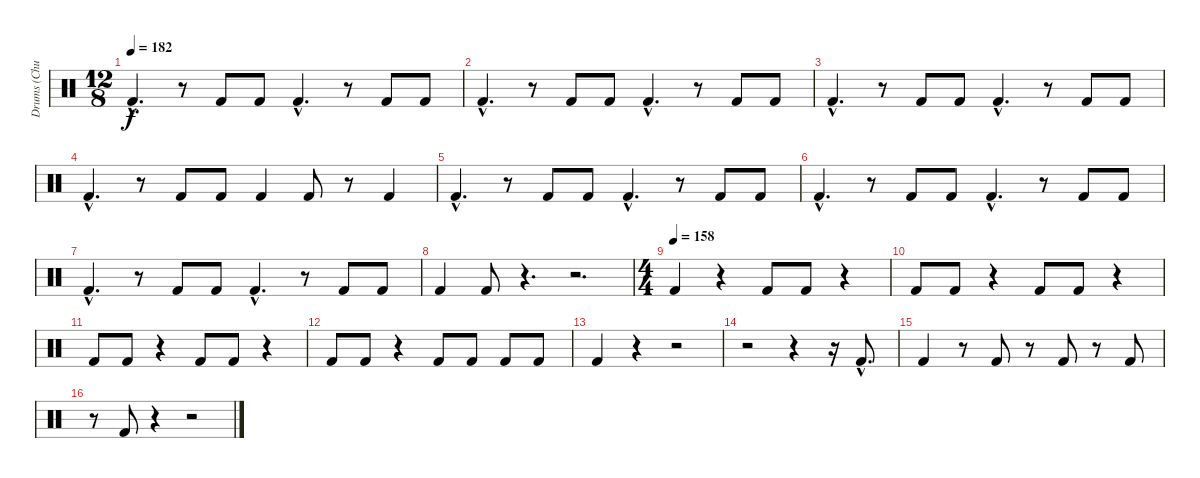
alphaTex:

\track ("Drums (Chuck Behler)" "Drums (Chu") {instrument percussion}
\staff {score}
\articulation defaults
\ts (12 8)
\tempo 182
\clef neutral
\ks c "Kick (hit) 2"{hac}.4{d dy f}
r.8 "Kick (hit) 2".8 "Kick (hit) 2".8 "Kick (hit) 2"{hac}.4{d} r.8 "Kick (hit) 2".8 "Kick (hit) 2".8 |
"Kick (hit) 2"{hac}.4{d} r.8 "Kick (hit) 2".8 "Kick (hit) 2".8 "Kick (hit) 2"{hac}.4{d} r.8 "Kick (hit) 2".8 "Kick (hit) 2".8 |
"Kick (hit) 2"{hac}.4{d} r.8 "Kick (hit) 2".8 "Kick (hit) 2".8 "Kick (hit) 2"{hac}.4{d} r.8 "Kick (hit) 2".8 "Kick (hit) 2".8 |
"Kick (hit) 2"{hac}.4{d} r.8 "Kick (hit) 2".8 "Kick (hit) 2".8 "Kick (hit) 2".4 "Kick (hit) 2".8 r.8 "Kick (hit) 2".4 |
"Kick (hit) 2"{hac}.4{d} r.8 "Kick (hit) 2".8 "Kick (hit) 2".8 "Kick (hit) 2"{hac}.4{d} r.8 "Kick (hit) 2".8 "Kick (hit) 2".8 |
"Kick (hit) 2"{hac}.4{d} r.8 "Kick (hit) 2".8 "Kick (hit) 2".8 "Kick (hit) 2"{hac}.4{d} r.8 "Kick (hit) 2".8 "Kick (hit) 2".8 |
"Kick (hit) 2"{hac}.4{d} r.8 "Kick (hit) 2".8 "Kick (hit) 2".8 "Kick (hit) 2"{hac}.4{d} r.8 "Kick (hit) 2".8 "Kick (hit) 2".8 |
"Kick (hit) 2".4 "Kick (hit) 2".8 r.4{d} r.2{d} |
\ts (4 4)
\tempo (158)
"Kick (hit) 2".4 r.4 "Kick (hit) 2".8 "Kick (hit) 2".8 r.4 |
"Kick (hit) 2".8 "Kick (hit) 2".8 r.4 "Kick (hit) 2".8 "Kick (hit) 2".8 r.4 |
"Kick (hit) 2".8 "Kick (hit) 2".8 r.4 "Kick (hit) 2".8 "Kick (hit) 2".8 r.4 |
"Kick (hit) 2".8 "Kick (hit) 2".8 r.4 "Kick (hit) 2".8 "Kick (hit) 2".8 "Kick (hit) 2".8 "Kick (hit) 2".8 |
"Kick (hit) 2".4 r.4 r.2 |
r.2 r.4 r.16 "Kick (hit) 2"{hac}.8{d} |
"Kick (hit) 2".4 r.8 "Kick (hit) 2".8 r.8 "Kick (hit) 2".8 r.8 "Kick (hit) 2".8 |
r.8 "Kick (hit) 2".8 r.4 r.2
